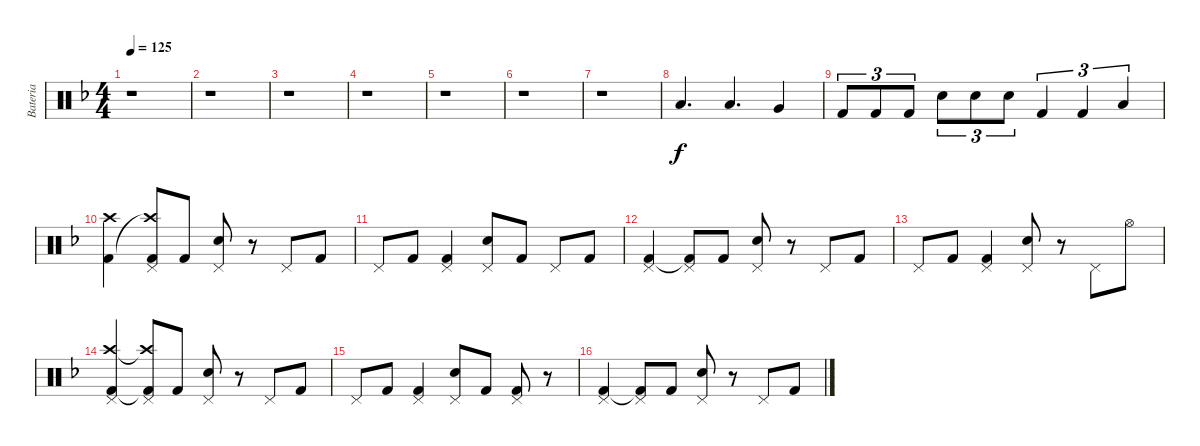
\track ("Bateria" "Bateria") {instrument percussion}
\staff {score}
\articulation defaults
\ts (4 4)
\tempo 125
\clef neutral
\ks f
r.1{dy f} |
r.1 |
r.1 |
r.1 |
r.1 |
r.1 |
r.1 |
"Low Tom (hit)".4{d} "Low Floor Tom (hit)".4{d} "Very Low Tom (hit)".4 |
"Kick (hit) 2".8{tu (3 2)} "Kick (hit) 2".8{tu (3 2)} "Kick (hit) 2".8{tu (3 2)} "Electric Snare (hit)".8{tu (3 2)} "Electric Snare (hit)".8{tu (3 2)} "Electric Snare (hit)".8{tu (3 2)} "Kick (hit) 2".4{tu (3 2)} "Kick (hit) 2".4{tu (3 2)} "Low Tom (hit)".4{tu (3 2)} |
("Crash high (hit)" "Kick (hit) 2").4 ("Pedal Hi-Hat (hit)" "Crash high (hit)"{t} "Kick (hit) 2").8 "Kick (hit) 2".8 ("Pedal Hi-Hat (hit)" "Electric Snare (hit)").8 r.8 "Pedal Hi-Hat (hit)".8 "Kick (hit) 2".8 |
"Pedal Hi-Hat (hit)".8 "Kick (hit) 2".8 ("Pedal Hi-Hat (hit)" "Kick (hit) 2").4 ("Pedal Hi-Hat (hit)" "Electric Snare (hit)").8 "Kick (hit) 2".8 "Pedal Hi-Hat (hit)".8 "Kick (hit) 2".8 |
("Pedal Hi-Hat (hit)" "Kick (hit) 2").4 ("Pedal Hi-Hat (hit)" "Kick (hit) 2"{t}).8 "Kick (hit) 2".8 ("Pedal Hi-Hat (hit)" "Electric Snare (hit)").8 r.8 "Pedal Hi-Hat (hit)".8 "Kick (hit) 2".8 |
"Pedal Hi-Hat (hit)".8 "Kick (hit) 2".8 ("Pedal Hi-Hat (hit)" "Kick (hit) 2").4 ("Pedal Hi-Hat (hit)" "Electric Snare (hit)").8 r.8 "Pedal Hi-Hat (hit)".8 "Hi-Hat (open)".8 |
("Pedal Hi-Hat (hit)" "Crash high (hit)" "Kick (hit) 2").4 ("Pedal Hi-Hat (hit)" "Crash high (hit)"{t} "Kick (hit) 2"{t}).8 "Kick (hit) 2".8 ("Pedal Hi-Hat (hit)" "Electric Snare (hit)").8 r.8 "Pedal Hi-Hat (hit)".8 "Kick (hit) 2".8 |
"Pedal Hi-Hat (hit)".8 "Kick (hit) 2".8 ("Pedal Hi-Hat (hit)" "Kick (hit) 2").4 ("Pedal Hi-Hat (hit)" "Electric Snare (hit)").8 "Kick (hit) 2".8 ("Pedal Hi-Hat (hit)" "Kick (hit) 2").8 r.8 |
("Pedal Hi-Hat (hit)" "Kick (hit) 2").4 ("Pedal Hi-Hat (hit)" "Kick (hit) 2"{t}).8 "Kick (hit) 2".8 ("Pedal Hi-Hat (hit)" "Electric Snare (hit)").8 r.8 "Pedal Hi-Hat (hit)".8 "Kick (hit) 2".8
